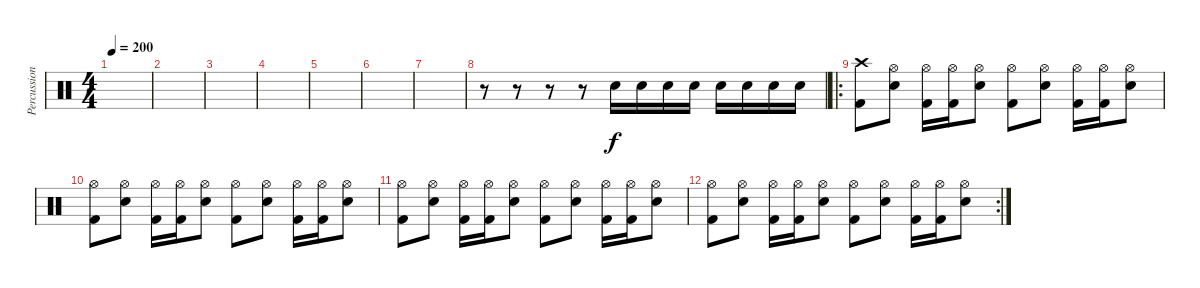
\track ("Percussions" "Percussion") {instrument percussion}
\staff {score}
\articulation defaults
\ts (4 4)
\tempo 200
\clef neutral
\ks c
|
|
|
|
|
|
|
r.8 r.8 r.8 r.8 "Electric Snare (hit)".16 "Electric Snare (hit)".16 "Electric Snare (hit)".16 "Electric Snare (hit)".16 "Electric Snare (hit)".16 "Electric Snare (hit)".16 "Electric Snare (hit)".16 "Electric Snare (hit)".16 |
\ro
("Crash high (hit)" "Kick (hit) 2").8 ("Hi-Hat (open)" "Electric Snare (hit)").8 ("Hi-Hat (open)" "Kick (hit) 2").16 ("Hi-Hat (open)" "Kick (hit) 2").16 ("Hi-Hat (open)" "Electric Snare (hit)").8 ("Hi-Hat (open)" "Kick (hit) 2").8 ("Hi-Hat (open)" "Electric Snare (hit)").8 ("Hi-Hat (open)" "Kick (hit) 2").16 ("Hi-Hat (open)" "Kick (hit) 2").16 ("Hi-Hat (open)" "Electric Snare (hit)").8 |
("Hi-Hat (open)" "Kick (hit) 2").8 ("Hi-Hat (open)" "Electric Snare (hit)").8 ("Hi-Hat (open)" "Kick (hit) 2").16 ("Hi-Hat (open)" "Kick (hit) 2").16 ("Hi-Hat (open)" "Electric Snare (hit)").8 ("Hi-Hat (open)" "Kick (hit) 2").8 ("Hi-Hat (open)" "Electric Snare (hit)").8 ("Hi-Hat (open)" "Kick (hit) 2").16 ("Hi-Hat (open)" "Kick (hit) 2").16 ("Hi-Hat (open)" "Electric Snare (hit)").8 |
("Hi-Hat (open)" "Kick (hit) 2").8 ("Hi-Hat (open)" "Electric Snare (hit)").8 ("Hi-Hat (open)" "Kick (hit) 2").16 ("Hi-Hat (open)" "Kick (hit) 2").16 ("Hi-Hat (open)" "Electric Snare (hit)").8 ("Hi-Hat (open)" "Kick (hit) 2").8 ("Hi-Hat (open)" "Electric Snare (hit)").8 ("Hi-Hat (open)" "Kick (hit) 2").16 ("Hi-Hat (open)" "Kick (hit) 2").16 ("Hi-Hat (open)" "Electric Snare (hit)").8 |
\rc 2
("Hi-Hat (open)" "Kick (hit) 2").8 ("Hi-Hat (open)" "Electric Snare (hit)").8 ("Hi-Hat (open)" "Kick (hit) 2").16 ("Hi-Hat (open)" "Kick (hit) 2").16 ("Hi-Hat (open)" "Electric Snare (hit)").8 ("Hi-Hat (open)" "Kick (hit) 2").8 ("Hi-Hat (open)" "Electric Snare (hit)").8 ("Hi-Hat (open)" "Kick (hit) 2").16 ("Hi-Hat (open)" "Kick (hit) 2").16 ("Hi-Hat (open)" "Electric Snare (hit)").8
